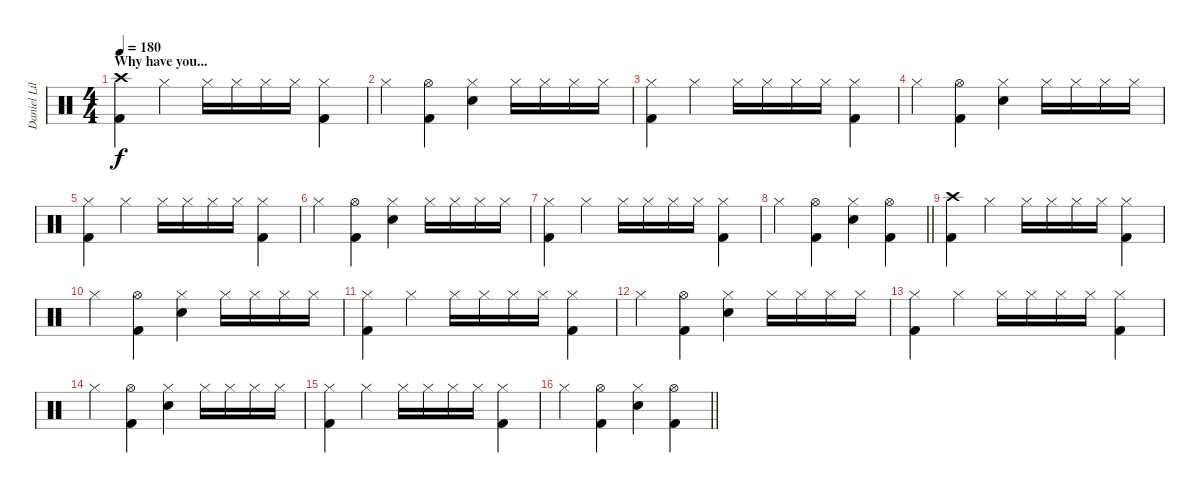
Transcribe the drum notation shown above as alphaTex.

\track ("Daniel Liljekvist" "Daniel Lil") {instrument percussion}
\staff {score}
\articulation defaults
\ts (4 4)
\section ("" "Why have you...")
\tempo 180
\clef neutral
\ks c
("Crash high (hit)" "Kick (hit) 2").4{dy f} "Hi-Hat (closed)".4 "Hi-Hat (closed)".16 "Hi-Hat (closed)".16 "Hi-Hat (closed)".16 "Hi-Hat (closed)".16 ("Hi-Hat (closed)" "Kick (hit) 2").4 |
"Hi-Hat (closed)".4 ("Hi-Hat (open)" "Kick (hit) 2").4 ("Hi-Hat (closed)" "Electric Snare (hit)").4 "Hi-Hat (closed)".16 "Hi-Hat (closed)".16 "Hi-Hat (closed)".16 "Hi-Hat (closed)".16 |
("Hi-Hat (closed)" "Kick (hit) 2").4 "Hi-Hat (closed)".4 "Hi-Hat (closed)".16 "Hi-Hat (closed)".16 "Hi-Hat (closed)".16 "Hi-Hat (closed)".16 ("Hi-Hat (closed)" "Kick (hit) 2").4 |
"Hi-Hat (closed)".4 ("Hi-Hat (open)" "Kick (hit) 2").4 ("Hi-Hat (closed)" "Electric Snare (hit)").4 "Hi-Hat (closed)".16 "Hi-Hat (closed)".16 "Hi-Hat (closed)".16 "Hi-Hat (closed)".16 |
("Hi-Hat (closed)" "Kick (hit) 2").4 "Hi-Hat (closed)".4 "Hi-Hat (closed)".16 "Hi-Hat (closed)".16 "Hi-Hat (closed)".16 "Hi-Hat (closed)".16 ("Hi-Hat (closed)" "Kick (hit) 2").4 |
"Hi-Hat (closed)".4 ("Hi-Hat (open)" "Kick (hit) 2").4 ("Hi-Hat (closed)" "Electric Snare (hit)").4 "Hi-Hat (closed)".16 "Hi-Hat (closed)".16 "Hi-Hat (closed)".16 "Hi-Hat (closed)".16 |
("Hi-Hat (closed)" "Kick (hit) 2").4 "Hi-Hat (closed)".4 "Hi-Hat (closed)".16 "Hi-Hat (closed)".16 "Hi-Hat (closed)".16 "Hi-Hat (closed)".16 ("Hi-Hat (closed)" "Kick (hit) 2").4 |
\barLineRight lightlight "Hi-Hat (closed)".4
("Hi-Hat (open)" "Kick (hit) 2").4 ("Hi-Hat (closed)" "Electric Snare (hit)").4 ("Hi-Hat (open)" "Kick (hit) 2").4 |
("Crash high (hit)" "Kick (hit) 2").4 "Hi-Hat (closed)".4 "Hi-Hat (closed)".16 "Hi-Hat (closed)".16 "Hi-Hat (closed)".16 "Hi-Hat (closed)".16 ("Hi-Hat (closed)" "Kick (hit) 2").4 |
"Hi-Hat (closed)".4 ("Hi-Hat (open)" "Kick (hit) 2").4 ("Hi-Hat (closed)" "Electric Snare (hit)").4 "Hi-Hat (closed)".16 "Hi-Hat (closed)".16 "Hi-Hat (closed)".16 "Hi-Hat (closed)".16 |
("Hi-Hat (closed)" "Kick (hit) 2").4 "Hi-Hat (closed)".4 "Hi-Hat (closed)".16 "Hi-Hat (closed)".16 "Hi-Hat (closed)".16 "Hi-Hat (closed)".16 ("Hi-Hat (closed)" "Kick (hit) 2").4 |
"Hi-Hat (closed)".4 ("Hi-Hat (open)" "Kick (hit) 2").4 ("Hi-Hat (closed)" "Electric Snare (hit)").4 "Hi-Hat (closed)".16 "Hi-Hat (closed)".16 "Hi-Hat (closed)".16 "Hi-Hat (closed)".16 |
("Hi-Hat (closed)" "Kick (hit) 2").4 "Hi-Hat (closed)".4 "Hi-Hat (closed)".16 "Hi-Hat (closed)".16 "Hi-Hat (closed)".16 "Hi-Hat (closed)".16 ("Hi-Hat (closed)" "Kick (hit) 2").4 |
"Hi-Hat (closed)".4 ("Hi-Hat (open)" "Kick (hit) 2").4 ("Hi-Hat (closed)" "Electric Snare (hit)").4 "Hi-Hat (closed)".16 "Hi-Hat (closed)".16 "Hi-Hat (closed)".16 "Hi-Hat (closed)".16 |
("Hi-Hat (closed)" "Kick (hit) 2").4 "Hi-Hat (closed)".4 "Hi-Hat (closed)".16 "Hi-Hat (closed)".16 "Hi-Hat (closed)".16 "Hi-Hat (closed)".16 ("Hi-Hat (closed)" "Kick (hit) 2").4 |
\barLineRight lightlight "Hi-Hat (closed)".4
("Hi-Hat (open)" "Kick (hit) 2").4 ("Hi-Hat (closed)" "Electric Snare (hit)").4 ("Hi-Hat (open)" "Kick (hit) 2").4
